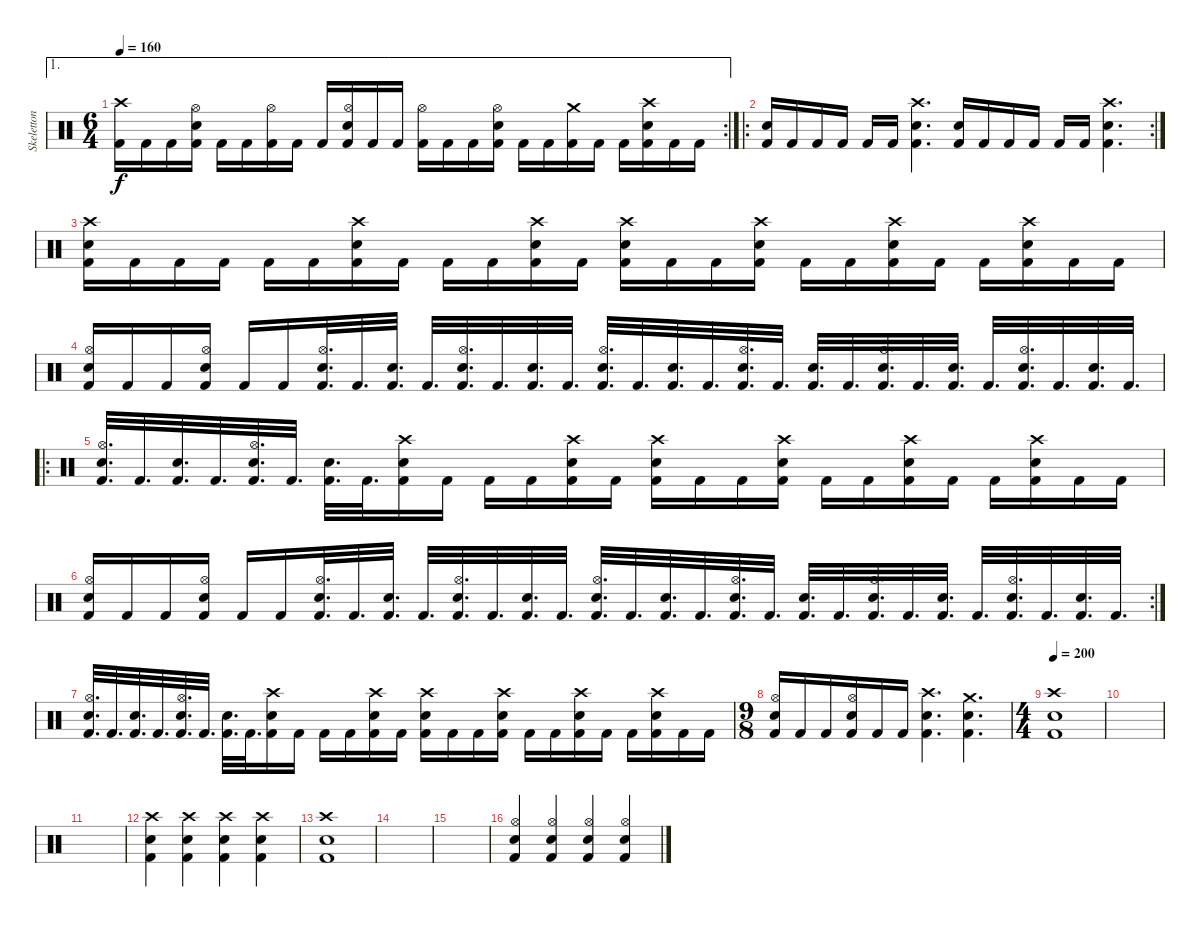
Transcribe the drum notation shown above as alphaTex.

\track ("Skeletton - Drums" "Skeletton ") {instrument percussion}
\staff {score}
\articulation defaults
\ae 1
\rc 2
\ts (6 4)
\tempo 160
\clef neutral
\ks c
("Crash high (hit)" "Kick (hit) 2").16{dy f} "Kick (hit) 2".16 "Kick (hit) 2".16 ("Hi-Hat (open)" "Electric Snare (hit)" "Kick (hit) 2").16 "Kick (hit) 2".16 "Kick (hit) 2".16 ("Hi-Hat (open)" "Kick (hit) 2").16 "Kick (hit) 2".16 "Kick (hit) 2".16 ("Hi-Hat (open)" "Electric Snare (hit)" "Kick (hit) 2").16 "Kick (hit) 2".16 "Kick (hit) 2".16 ("Hi-Hat (open)" "Kick (hit) 2").16 "Kick (hit) 2".16 "Kick (hit) 2".16 ("Hi-Hat (open)" "Electric Snare (hit)" "Kick (hit) 2").16 "Kick (hit) 2".16 "Kick (hit) 2".16 ("Crash medium (hit)" "Kick (hit) 2").16 "Kick (hit) 2".16 "Kick (hit) 2".16 ("Crash high (hit)" "Electric Snare (hit)" "Kick (hit) 2").16 "Kick (hit) 2".16 "Kick (hit) 2".16 |
\ro
\rc 2
("Electric Snare (hit)" "Kick (hit) 2").16 "Kick (hit) 2".16 "Kick (hit) 2".16 "Kick (hit) 2".16 "Kick (hit) 2".16 "Kick (hit) 2".16 ("Crash high (hit)" "Electric Snare (hit)" "Kick (hit) 2").4{d} ("Electric Snare (hit)" "Kick (hit) 2").16 "Kick (hit) 2".16 "Kick (hit) 2".16 "Kick (hit) 2".16 "Kick (hit) 2".16 "Kick (hit) 2".16 ("Crash high (hit)" "Electric Snare (hit)" "Kick (hit) 2").4{d} |
("Crash high (hit)" "Electric Snare (hit)" "Kick (hit) 2").16 "Kick (hit) 2".16 "Kick (hit) 2".16 "Kick (hit) 2".16 "Kick (hit) 2".16 "Kick (hit) 2".16 ("Crash high (hit)" "Electric Snare (hit)" "Kick (hit) 2").16 "Kick (hit) 2".16 "Kick (hit) 2".16 "Kick (hit) 2".16 ("Crash high (hit)" "Electric Snare (hit)" "Kick (hit) 2").16 "Kick (hit) 2".16 ("Crash high (hit)" "Electric Snare (hit)" "Kick (hit) 2").16 "Kick (hit) 2".16 "Kick (hit) 2".16 ("Crash high (hit)" "Electric Snare (hit)" "Kick (hit) 2").16 "Kick (hit) 2".16 "Kick (hit) 2".16 ("Crash high (hit)" "Electric Snare (hit)" "Kick (hit) 2").16 "Kick (hit) 2".16 "Kick (hit) 2".16 ("Crash high (hit)" "Electric Snare (hit)" "Kick (hit) 2").16 "Kick (hit) 2".16 "Kick (hit) 2".16 |
("Hi-Hat (open)" "Electric Snare (hit)" "Kick (hit) 2").16 "Kick (hit) 2".16 "Kick (hit) 2".16 ("Hi-Hat (open)" "Electric Snare (hit)" "Kick (hit) 2").16 "Kick (hit) 2".16 "Kick (hit) 2".16 ("Hi-Hat (open)" "Electric Snare (hit)" "Kick (hit) 2").32{d} "Kick (hit) 2".32{d} ("Electric Snare (hit)" "Kick (hit) 2").32{d} "Kick (hit) 2".32{d} ("Hi-Hat (open)" "Electric Snare (hit)" "Kick (hit) 2").32{d} "Kick (hit) 2".32{d} ("Electric Snare (hit)" "Kick (hit) 2").32{d} "Kick (hit) 2".32{d} ("Hi-Hat (open)" "Electric Snare (hit)" "Kick (hit) 2").32{d} "Kick (hit) 2".32{d} ("Electric Snare (hit)" "Kick (hit) 2").32{d} "Kick (hit) 2".32{d} ("Hi-Hat (open)" "Electric Snare (hit)" "Kick (hit) 2").32{d} "Kick (hit) 2".32{d} ("Electric Snare (hit)" "Kick (hit) 2").32{d} "Kick (hit) 2".32{d} ("Hi-Hat (open)" "Electric Snare (hit)" "Kick (hit) 2").32{d} "Kick (hit) 2".32{d} ("Electric Snare (hit)" "Kick (hit) 2").32{d} "Kick (hit) 2".32{d} ("Hi-Hat (open)" "Electric Snare (hit)" "Kick (hit) 2").32{d} "Kick (hit) 2".32{d} ("Electric Snare (hit)" "Kick (hit) 2").32{d} "Kick (hit) 2".32{d} |
\ro
("Hi-Hat (open)" "Electric Snare (hit)" "Kick (hit) 2").32{d} "Kick (hit) 2".32{d} ("Electric Snare (hit)" "Kick (hit) 2").32{d} "Kick (hit) 2".32{d} ("Hi-Hat (open)" "Electric Snare (hit)" "Kick (hit) 2").32{d} "Kick (hit) 2".32{d} ("Electric Snare (hit)" "Kick (hit) 2").32{d} "Kick (hit) 2".32{d} ("Crash high (hit)" "Electric Snare (hit)" "Kick (hit) 2").16 "Kick (hit) 2".16 "Kick (hit) 2".16 "Kick (hit) 2".16 ("Crash high (hit)" "Electric Snare (hit)" "Kick (hit) 2").16 "Kick (hit) 2".16 ("Crash high (hit)" "Electric Snare (hit)" "Kick (hit) 2").16 "Kick (hit) 2".16 "Kick (hit) 2".16 ("Crash high (hit)" "Electric Snare (hit)" "Kick (hit) 2").16 "Kick (hit) 2".16 "Kick (hit) 2".16 ("Crash high (hit)" "Electric Snare (hit)" "Kick (hit) 2").16 "Kick (hit) 2".16 "Kick (hit) 2".16 ("Crash high (hit)" "Electric Snare (hit)" "Kick (hit) 2").16 "Kick (hit) 2".16 "Kick (hit) 2".16 |
\rc 2
("Hi-Hat (open)" "Electric Snare (hit)" "Kick (hit) 2").16 "Kick (hit) 2".16 "Kick (hit) 2".16 ("Hi-Hat (open)" "Electric Snare (hit)" "Kick (hit) 2").16 "Kick (hit) 2".16 "Kick (hit) 2".16 ("Hi-Hat (open)" "Electric Snare (hit)" "Kick (hit) 2").32{d} "Kick (hit) 2".32{d} ("Electric Snare (hit)" "Kick (hit) 2").32{d} "Kick (hit) 2".32{d} ("Hi-Hat (open)" "Electric Snare (hit)" "Kick (hit) 2").32{d} "Kick (hit) 2".32{d} ("Electric Snare (hit)" "Kick (hit) 2").32{d} "Kick (hit) 2".32{d} ("Hi-Hat (open)" "Electric Snare (hit)" "Kick (hit) 2").32{d} "Kick (hit) 2".32{d} ("Electric Snare (hit)" "Kick (hit) 2").32{d} "Kick (hit) 2".32{d} ("Hi-Hat (open)" "Electric Snare (hit)" "Kick (hit) 2").32{d} "Kick (hit) 2".32{d} ("Electric Snare (hit)" "Kick (hit) 2").32{d} "Kick (hit) 2".32{d} ("Hi-Hat (open)" "Electric Snare (hit)" "Kick (hit) 2").32{d} "Kick (hit) 2".32{d} ("Electric Snare (hit)" "Kick (hit) 2").32{d} "Kick (hit) 2".32{d} ("Hi-Hat (open)" "Electric Snare (hit)" "Kick (hit) 2").32{d} "Kick (hit) 2".32{d} ("Electric Snare (hit)" "Kick (hit) 2").32{d} "Kick (hit) 2".32{d} |
("Hi-Hat (open)" "Electric Snare (hit)" "Kick (hit) 2").32{d} "Kick (hit) 2".32{d} ("Electric Snare (hit)" "Kick (hit) 2").32{d} "Kick (hit) 2".32{d} ("Hi-Hat (open)" "Electric Snare (hit)" "Kick (hit) 2").32{d} "Kick (hit) 2".32{d} ("Electric Snare (hit)" "Kick (hit) 2").32{d} "Kick (hit) 2".32{d} ("Crash high (hit)" "Electric Snare (hit)" "Kick (hit) 2").16 "Kick (hit) 2".16 "Kick (hit) 2".16 "Kick (hit) 2".16 ("Crash high (hit)" "Electric Snare (hit)" "Kick (hit) 2").16 "Kick (hit) 2".16 ("Crash high (hit)" "Electric Snare (hit)" "Kick (hit) 2").16 "Kick (hit) 2".16 "Kick (hit) 2".16 ("Crash high (hit)" "Electric Snare (hit)" "Kick (hit) 2").16 "Kick (hit) 2".16 "Kick (hit) 2".16 ("Crash high (hit)" "Electric Snare (hit)" "Kick (hit) 2").16 "Kick (hit) 2".16 "Kick (hit) 2".16 ("Crash high (hit)" "Electric Snare (hit)" "Kick (hit) 2").16 "Kick (hit) 2".16 "Kick (hit) 2".16 |
\ts (9 8)
("Hi-Hat (open)" "Electric Snare (hit)" "Kick (hit) 2").16 "Kick (hit) 2".16 "Kick (hit) 2".16 ("Hi-Hat (open)" "Electric Snare (hit)" "Kick (hit) 2").16 "Kick (hit) 2".16 "Kick (hit) 2".16 ("Crash high (hit)" "Electric Snare (hit)" "Kick (hit) 2").4{d} ("Crash medium (hit)" "Electric Snare (hit)" "Kick (hit) 2").4{d} |
\ts (4 4)
\tempo 200
("Crash high (hit)" "Electric Snare (hit)" "Kick (hit) 2").1 |
|
|
("Crash high (hit)" "Electric Snare (hit)" "Kick (hit) 2").4 ("Crash high (hit)" "Electric Snare (hit)" "Kick (hit) 2").4 ("Crash high (hit)" "Electric Snare (hit)" "Kick (hit) 2").4 ("Crash high (hit)" "Electric Snare (hit)" "Kick (hit) 2").4 |
("Crash high (hit)" "Electric Snare (hit)" "Kick (hit) 2").1 |
|
|
("Hi-Hat (open)" "Electric Snare (hit)" "Kick (hit) 2").4 ("Hi-Hat (open)" "Electric Snare (hit)" "Kick (hit) 2").4 ("Hi-Hat (open)" "Electric Snare (hit)" "Kick (hit) 2").4 ("Hi-Hat (open)" "Electric Snare (hit)" "Kick (hit) 2").4
